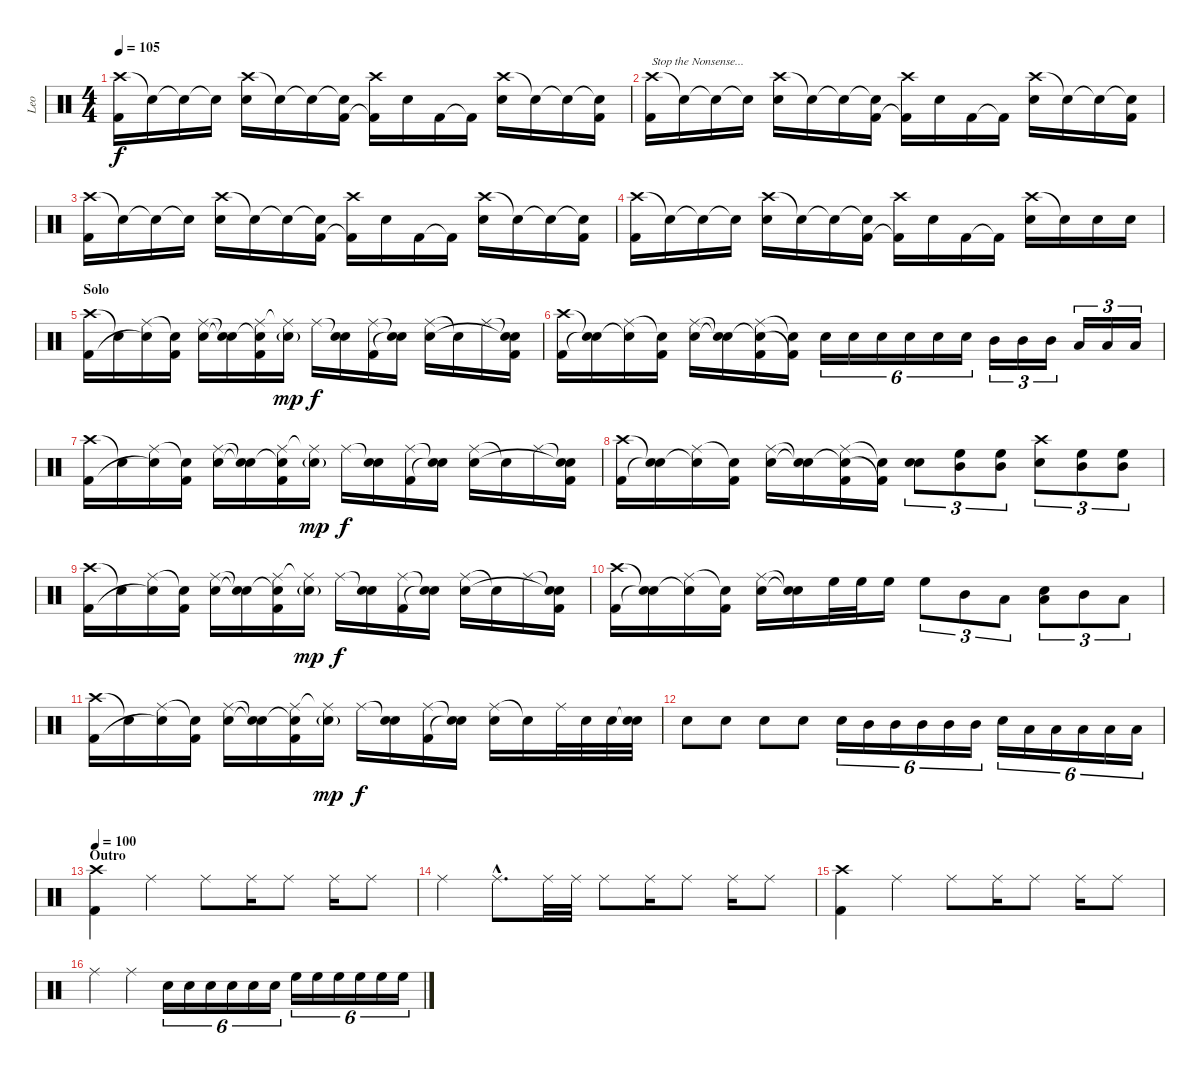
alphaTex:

\track ("Leo" "Leo") {instrument percussion}
\staff {score}
\articulation defaults
\ts (4 4)
\tempo 105
\clef neutral
\ks c
("Crash high (hit)" "Kick (hit) 2").16{dy f} "Snare (hit)"{t}.16 "Snare (hit)"{t}.16 "Snare (hit)"{t}.16 ("Crash high (hit)" "Snare (hit) 2").16 "Snare (hit)"{t}.16 "Snare (hit)"{t}.16 ("Snare (hit)"{t} "Kick (hit) 2").16 ("Crash high (hit)" "Kick (hit) 2"{t}).16 "Snare (hit) 2".16 "Kick (hit) 2".16 "Kick (hit) 2"{t}.16 ("Crash high (hit)" "Snare (hit) 2").16 "Snare (hit) 2"{t}.16 "Snare (hit)"{t}.16 ("Snare (hit)"{t} "Kick (hit) 2").16 |
("Crash high (hit)" "Kick (hit) 2").16{txt "Stop the Nonsense..."} "Snare (hit)"{t}.16 "Snare (hit)"{t}.16 "Snare (hit)"{t}.16 ("Crash high (hit)" "Snare (hit) 2").16 "Snare (hit)"{t}.16 "Snare (hit)"{t}.16 ("Snare (hit)"{t} "Kick (hit) 2").16 ("Crash high (hit)" "Kick (hit) 2"{t}).16 "Snare (hit) 2".16 "Kick (hit) 2".16 "Kick (hit) 2"{t}.16 ("Crash high (hit)" "Snare (hit) 2").16 "Snare (hit) 2"{t}.16 "Snare (hit)"{t}.16 ("Snare (hit)"{t} "Kick (hit) 2").16 |
("Crash high (hit)" "Kick (hit) 2").16 "Snare (hit)"{t}.16 "Snare (hit)"{t}.16 "Snare (hit)"{t}.16 ("Crash high (hit)" "Snare (hit) 2").16 "Snare (hit)"{t}.16 "Snare (hit)"{t}.16 ("Snare (hit)"{t} "Kick (hit) 2").16 ("Crash high (hit)" "Kick (hit) 2"{t}).16 "Snare (hit) 2".16 "Kick (hit) 2".16 "Kick (hit) 2"{t}.16 ("Crash high (hit)" "Snare (hit) 2").16 "Snare (hit) 2"{t}.16 "Snare (hit)"{t}.16 ("Snare (hit)"{t} "Kick (hit) 2").16 |
("Crash high (hit)" "Kick (hit) 2").16 "Snare (hit)"{t}.16 "Snare (hit)"{t}.16 "Snare (hit)"{t}.16 ("Crash high (hit)" "Snare (hit) 2").16 "Snare (hit)"{t}.16 "Snare (hit)"{t}.16 ("Snare (hit)"{t} "Kick (hit) 2").16 ("Crash high (hit)" "Kick (hit) 2"{t}).16 "Snare (hit) 2".16 "Kick (hit) 2".16 "Kick (hit) 2"{t}.16 ("Crash high (hit)" "Snare (hit) 2").16 "Snare (hit) 2"{t}.16 "Snare (hit) 2".16 "Snare (hit) 2".16 |
\section ("" "Solo")
("Crash high (hit)" "Kick (hit) 2").16 "Snare (hit)"{t}.16 ("Ride (middle)" "Snare (hit)"{t}).16 ("Snare (hit)"{t} "Kick (hit) 2").16 ("Ride (middle)" "Snare (hit) 2").16 ("Snare (hit)"{t} "Snare (hit) 2"{t}).16 ("Ride (middle)" "Snare (hit)"{t} "Kick (hit) 2").16 ("Ride (middle)"{t} "Snare (hit) 2"{g}).16{dy mp} "Ride (middle)".16{dy f} ("Snare (hit)"{t} "Snare (hit) 2").16 ("Ride (middle)" "Kick (hit) 2").16 ("Snare (hit)"{t} "Snare (hit)"{t}).16 ("Ride (middle)" "Snare (hit) 2").16 "Snare (hit)"{t}.16 "Ride (middle)".16 ("Snare (hit)"{t} "Snare (hit)"{t} "Kick (hit) 2").16 |
("Crash high (hit)" "Kick (hit) 2").16 ("Snare (hit)"{t} "Snare (hit)"{t}).16 ("Ride (middle)" "Snare (hit)"{t}).16 ("Snare (hit)"{t} "Kick (hit) 2").16 ("Ride (middle)" "Snare (hit) 2").16 ("Snare (hit)"{t} "Snare (hit)"{t}).16 ("Ride (middle)" "Snare (hit)"{t} "Kick (hit) 2").16 ("Snare (hit)"{t} "Kick (hit) 2"{t}).16 "Snare (hit) 2".16{tu (6 4)} "Snare (hit) 2".16{tu (6 4)} "Snare (hit) 2".16{tu (6 4)} "Snare (hit) 2".16{tu (6 4)} "Snare (hit) 2".16{tu (6 4)} "Snare (hit) 2".16{tu (6 4)} "Mid Tom (hit)".16{tu (3 2)} "Mid Tom (hit)".16{tu (3 2)} "Mid Tom (hit)".16{tu (3 2)} "Low Floor Tom (hit)".16{tu (3 2)} "Low Floor Tom (hit)".16{tu (3 2)} "Low Floor Tom (hit)".16{tu (3 2)} |
("Crash high (hit)" "Kick (hit) 2").16 "Snare (hit)"{t}.16 ("Ride (middle)" "Snare (hit)"{t}).16 ("Snare (hit)"{t} "Kick (hit) 2").16 ("Ride (middle)" "Snare (hit) 2").16 ("Snare (hit)"{t} "Snare (hit) 2"{t}).16 ("Ride (middle)" "Snare (hit)"{t} "Kick (hit) 2").16 ("Ride (middle)"{t} "Snare (hit) 2"{g}).16{dy mp} "Ride (middle)".16{dy f} ("Snare (hit)"{t} "Snare (hit) 2").16 ("Ride (middle)" "Kick (hit) 2").16 ("Snare (hit)"{t} "Snare (hit)"{t}).16 ("Ride (middle)" "Snare (hit) 2").16 "Snare (hit)"{t}.16 "Ride (middle)".16 ("Snare (hit)"{t} "Snare (hit)"{t} "Kick (hit) 2").16 |
("Crash high (hit)" "Kick (hit) 2").16 ("Snare (hit)"{t} "Snare (hit)"{t}).16 ("Ride (middle)" "Snare (hit)"{t}).16 ("Snare (hit)"{t} "Kick (hit) 2").16 ("Ride (middle)" "Snare (hit) 2").16 ("Snare (hit)"{t} "Snare (hit)"{t}).16 ("Ride (middle)" "Snare (hit)"{t} "Kick (hit) 2").16 ("Snare (hit)"{t} "Kick (hit) 2"{t}).16 ("Snare (hit) 2" "Snare (hit) 2").8{tu (3 2)} ("Mid Tom (hit)" "High Floor Tom (hit)").8{tu (3 2)} ("Mid Tom (hit)" "High Floor Tom (hit)").8{tu (3 2)} ("Crash high (hit)" "Snare (hit) 2").8{tu (3 2)} ("Mid Tom (hit)" "High Floor Tom (hit)").8{tu (3 2)} ("Mid Tom (hit)" "High Floor Tom (hit)").8{tu (3 2)} |
("Crash high (hit)" "Kick (hit) 2").16 "Snare (hit)"{t}.16 ("Ride (middle)" "Snare (hit)"{t}).16 ("Snare (hit)"{t} "Kick (hit) 2").16 ("Ride (middle)" "Snare (hit) 2").16 ("Snare (hit)"{t} "Snare (hit) 2"{t}).16 ("Ride (middle)" "Snare (hit)"{t} "Kick (hit) 2").16 ("Ride (middle)"{t} "Snare (hit) 2"{g}).16{dy mp} "Ride (middle)".16{dy f} ("Snare (hit)"{t} "Snare (hit) 2").16 ("Ride (middle)" "Kick (hit) 2").16 ("Snare (hit)"{t} "Snare (hit)"{t}).16 ("Ride (middle)" "Snare (hit) 2").16 "Snare (hit)"{t}.16 "Ride (middle)".16 ("Snare (hit)"{t} "Snare (hit)"{t} "Kick (hit) 2").16 |
("Crash high (hit)" "Kick (hit) 2").16 ("Snare (hit)"{t} "Snare (hit)"{t}).16 ("Ride (middle)" "Snare (hit)"{t}).16 ("Snare (hit)"{t} "Kick (hit) 2").16 ("Ride (middle)" "Snare (hit) 2").16 ("Snare (hit)"{t} "Snare (hit)"{t}).16 "High Floor Tom (hit)".32 "High Floor Tom (hit)".32 "High Floor Tom (hit)".16 "High Floor Tom (hit)".8{tu (3 2)} "Mid Tom (hit)".8{tu (3 2)} "Low Floor Tom (hit)".8{tu (3 2)} ("Snare (hit) 2" "Low Floor Tom (hit)").8{tu (3 2)} "Mid Tom (hit)".8{tu (3 2)} "Low Floor Tom (hit)".8{tu (3 2)} |
("Crash high (hit)" "Kick (hit) 2").16 "Snare (hit)"{t}.16 ("Ride (middle)" "Snare (hit)"{t}).16 ("Snare (hit)"{t} "Kick (hit) 2").16 ("Ride (middle)" "Snare (hit) 2").16 ("Snare (hit)"{t} "Snare (hit) 2"{t}).16 ("Ride (middle)" "Snare (hit)"{t} "Kick (hit) 2").16 ("Ride (middle)"{t} "Snare (hit) 2"{g}).16{dy mp} "Ride (middle)".16{dy f} ("Snare (hit)"{t} "Snare (hit) 2").16 ("Ride (middle)" "Kick (hit) 2").16 ("Snare (hit)"{t} "Snare (hit)"{t}).16 ("Ride (middle)" "Snare (hit) 2").16 "Snare (hit)"{t}.16 "Ride (middle)".32 "Snare (hit) 2".32 "Snare (hit) 2".32 ("Snare (hit)"{t} "Snare (hit) 2").32 |
"Snare (hit) 2".8 "Snare (hit) 2".8 "Snare (hit) 2".8 "Snare (hit) 2".8 "Snare (hit) 2".16{tu (6 4)} "Mid Tom (hit)".16{tu (6 4)} "Mid Tom (hit)".16{tu (6 4)} "Mid Tom (hit)".16{tu (6 4)} "Mid Tom (hit)".16{tu (6 4)} "Mid Tom (hit)".16{tu (6 4)} "Snare (hit) 2".16{tu (6 4)} "Low Floor Tom (hit)".16{tu (6 4)} "Low Floor Tom (hit)".16{tu (6 4)} "Low Floor Tom (hit)".16{tu (6 4)} "Low Floor Tom (hit)".16{tu (6 4)} "Low Floor Tom (hit)".16{tu (6 4)} |
\section ("" "Outro")
\tempo 100
("Crash high (hit)" "Kick (hit) 2").4 "Ride (middle)".4 "Ride (middle)".8 "Ride (middle)".16 "Ride (middle)".8 "Ride (middle)".16 "Ride (middle)".8 |
"Ride (middle)".4 "Ride (middle)"{hac}.8{d} "Ride (middle)".32 "Ride (middle)".32 "Ride (middle)".8 "Ride (middle)".16 "Ride (middle)".8 "Ride (middle)".16 "Ride (middle)".8 |
("Crash high (hit)" "Kick (hit) 2").4 "Ride (middle)".4 "Ride (middle)".8 "Ride (middle)".16 "Ride (middle)".8 "Ride (middle)".16 "Ride (middle)".8 |
"Ride (middle)".4 "Ride (middle)".4 "Snare (hit) 2".16{tu (6 4)} "Snare (hit) 2".16{tu (6 4)} "Snare (hit) 2".16{tu (6 4)} "Snare (hit) 2".16{tu (6 4)} "Snare (hit) 2".16{tu (6 4)} "Snare (hit) 2".16{tu (6 4)} "High Floor Tom (hit)".16{tu (6 4)} "High Floor Tom (hit)".16{tu (6 4)} "High Floor Tom (hit)".16{tu (6 4)} "High Floor Tom (hit)".16{tu (6 4)} "High Floor Tom (hit)".16{tu (6 4)} "High Floor Tom (hit)".16{tu (6 4)}
